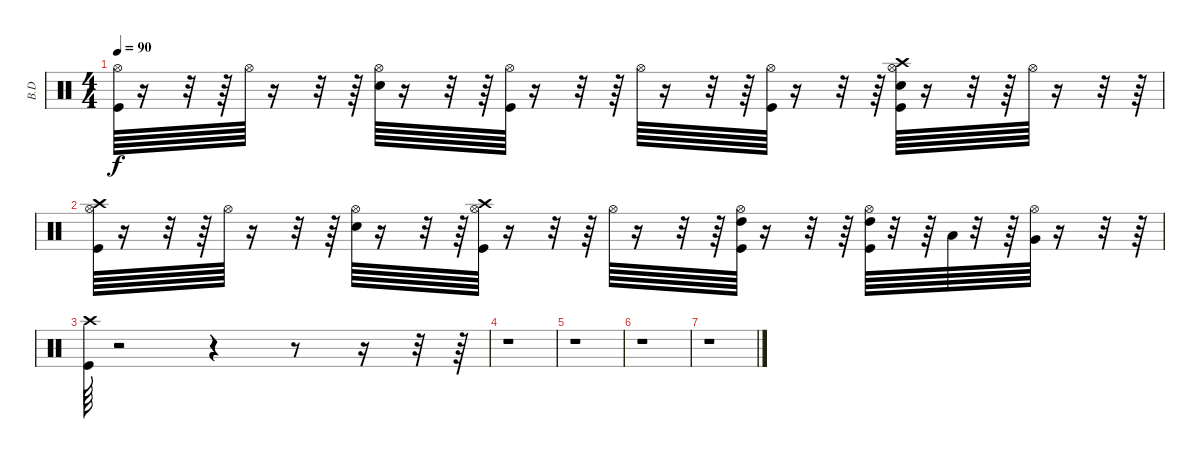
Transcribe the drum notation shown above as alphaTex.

\track ("B.D" "B.D") {instrument percussion}
\staff {score}
\articulation defaults
\ts (4 4)
\tempo 90
\clef neutral
\ks c
("Kick (hit)" "Hi-Hat (open)").64{dy f} r.16 r.32 r.64 "Hi-Hat (open)".64 r.16 r.32 r.64 ("Electric Snare (hit)" "Hi-Hat (open)").64 r.16 r.32 r.64 ("Kick (hit)" "Hi-Hat (open)").64 r.16 r.32 r.64 "Hi-Hat (open)".64 r.16 r.32 r.64 ("Kick (hit)" "Hi-Hat (open)").64 r.16 r.32 r.64 ("Kick (hit)" "Electric Snare (hit)" "Hi-Hat (open)" "Crash high (hit)").64 r.16 r.32 r.64 "Hi-Hat (open)".64 r.16 r.32 r.64 |
("Kick (hit)" "Hi-Hat (open)" "Crash high (hit)").64 r.16 r.32 r.64 "Hi-Hat (open)".64 r.16 r.32 r.64 ("Electric Snare (hit)" "Hi-Hat (open)").64 r.16 r.32 r.64 ("Kick (hit)" "Hi-Hat (open)" "Crash high (hit)").64 r.16 r.32 r.64 "Hi-Hat (open)".64 r.16 r.32 r.64 ("Kick (hit)" "Hi-Hat (open)" "High Tom (hit)").64 r.16 r.32 r.64 ("Kick (hit)" "Hi-Hat (open)" "High Tom (hit)").64 r.32 r.64 "Low Tom (hit)".64 r.32 r.64 ("Hi-Hat (open)" "Very Low Tom (hit)").64 r.16 r.32 r.64 |
("Kick (hit)" "Crash high (hit)").64 r.2 r.4 r.8 r.16 r.32 r.64 |
r.1 |
r.1 |
r.1 |
r.1
